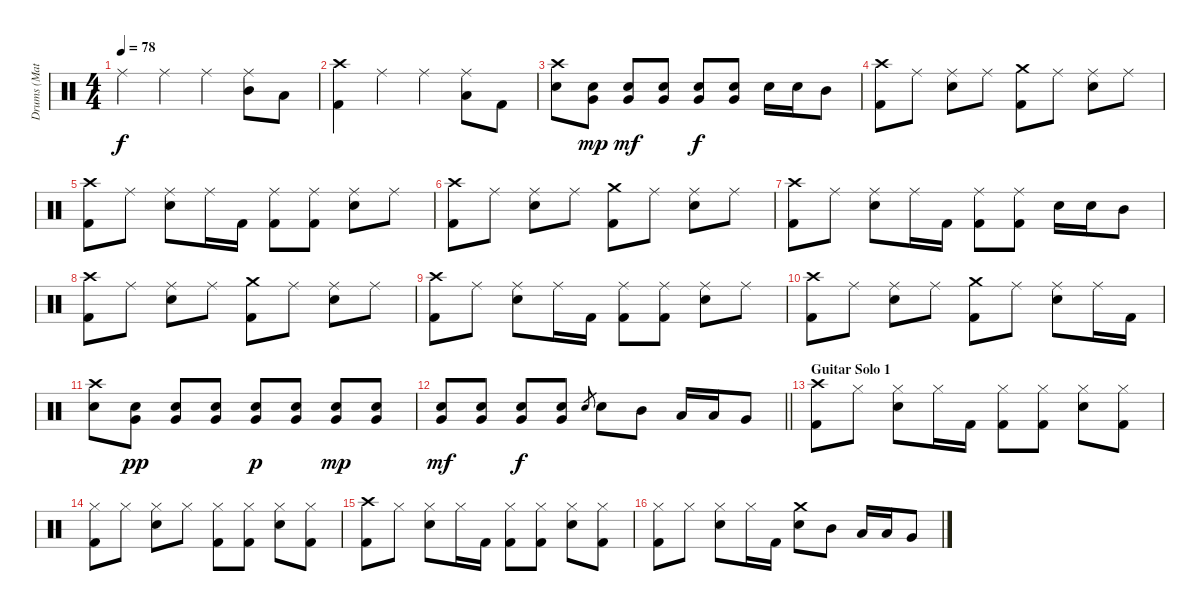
\track ("Drums (Matt)" "Drums (Mat") {instrument percussion}
\staff {score}
\articulation defaults
\ts (4 4)
\tempo 78
\clef neutral
\ks c "Ride (middle)".4{dy f} "Ride (middle)".4 "Ride (middle)".4
("Ride (middle)" "Mid Tom (hit)").8 "Low Tom (hit)".8 |
("Crash high (hit)" "Kick (hit) 2").4 "Ride (middle)".4 "Ride (middle)".4 ("Ride (middle)" "Low Tom (hit)").8 "Kick (hit) 2".8 |
("Crash high (hit)" "Snare (hit) 2").8 ("Very Low Tom (hit)" "Snare (hit) 2").8{dy mp} ("Very Low Tom (hit)" "Snare (hit) 2").8{dy mf} ("Very Low Tom (hit)" "Snare (hit) 2").8 ("Very Low Tom (hit)" "Snare (hit) 2").8{dy f} ("Very Low Tom (hit)" "Snare (hit) 2").8 "Snare (hit) 2".16 "Snare (hit) 2".16 "Mid Tom (hit)".8 |
("Crash high (hit)" "Kick (hit) 2").8 "Ride (middle)".8 ("Ride (middle)" "Snare (hit) 2").8 "Ride (middle)".8 ("Crash medium (hit)" "Kick (hit) 2").8 "Ride (middle)".8 ("Ride (middle)" "Snare (hit) 2").8 "Ride (middle)".8 |
("Crash high (hit)" "Kick (hit) 2").8 "Ride (middle)".8 ("Ride (middle)" "Snare (hit) 2").8 "Ride (middle)".16 "Kick (hit) 2".16 ("Ride (middle)" "Kick (hit) 2").8 ("Ride (middle)" "Kick (hit) 2").8 ("Ride (middle)" "Snare (hit) 2").8 "Ride (middle)".8 |
("Crash high (hit)" "Kick (hit) 2").8 "Ride (middle)".8 ("Ride (middle)" "Snare (hit) 2").8 "Ride (middle)".8 ("Crash medium (hit)" "Kick (hit) 2").8 "Ride (middle)".8 ("Ride (middle)" "Snare (hit) 2").8 "Ride (middle)".8 |
("Crash high (hit)" "Kick (hit) 2").8 "Ride (middle)".8 ("Ride (middle)" "Snare (hit) 2").8 "Ride (middle)".16 "Kick (hit) 2".16 ("Ride (middle)" "Kick (hit) 2").8 ("Ride (middle)" "Kick (hit) 2").8 "Snare (hit) 2".16 "Snare (hit) 2".16 "Mid Tom (hit)".8 |
("Crash high (hit)" "Kick (hit) 2").8 "Ride (middle)".8 ("Ride (middle)" "Snare (hit) 2").8 "Ride (middle)".8 ("Crash medium (hit)" "Kick (hit) 2").8 "Ride (middle)".8 ("Ride (middle)" "Snare (hit) 2").8 "Ride (middle)".8 |
("Crash high (hit)" "Kick (hit) 2").8 "Ride (middle)".8 ("Ride (middle)" "Snare (hit) 2").8 "Ride (middle)".16 "Kick (hit) 2".16 ("Ride (middle)" "Kick (hit) 2").8 ("Ride (middle)" "Kick (hit) 2").8 ("Ride (middle)" "Snare (hit) 2").8 "Ride (middle)".8 |
("Crash high (hit)" "Kick (hit) 2").8 "Ride (middle)".8 ("Ride (middle)" "Snare (hit) 2").8 "Ride (middle)".8 ("Crash medium (hit)" "Kick (hit) 2").8 "Ride (middle)".8 ("Ride (middle)" "Snare (hit) 2").8 "Ride (middle)".16 "Kick (hit) 2".16 |
("Crash high (hit)" "Snare (hit) 2").8 ("Very Low Tom (hit)" "Snare (hit) 2").8{dy pp} ("Very Low Tom (hit)" "Snare (hit) 2").8 ("Very Low Tom (hit)" "Snare (hit) 2").8 ("Very Low Tom (hit)" "Snare (hit) 2").8{dy p} ("Very Low Tom (hit)" "Snare (hit) 2").8 ("Very Low Tom (hit)" "Snare (hit) 2").8{dy mp} ("Very Low Tom (hit)" "Snare (hit) 2").8 |
\barLineRight lightlight
("Very Low Tom (hit)" "Snare (hit) 2").8{dy mf} ("Very Low Tom (hit)" "Snare (hit) 2").8 ("Very Low Tom (hit)" "Snare (hit) 2").8{dy f} ("Very Low Tom (hit)" "Snare (hit) 2").8 "Snare (hit) 2".8{gr} "Snare (hit) 2".8 "Mid Tom (hit)".8 "Low Tom (hit)".16 "Low Tom (hit)".16 "Very Low Tom (hit)".8 |
\section ("" "Guitar Solo 1")
("Crash high (hit)" "Kick (hit) 2").8 "Hi-Hat (closed)".8 ("Hi-Hat (closed)" "Snare (hit) 2").8 "Hi-Hat (closed)".16 "Kick (hit) 2".16 ("Hi-Hat (closed)" "Kick (hit) 2").8 ("Hi-Hat (closed)" "Kick (hit) 2").8 ("Hi-Hat (closed)" "Snare (hit) 2").8 ("Hi-Hat (closed)" "Kick (hit) 2").8 |
("Hi-Hat (closed)" "Kick (hit) 2").8 "Hi-Hat (closed)".8 ("Hi-Hat (closed)" "Snare (hit) 2").8 "Hi-Hat (closed)".8 ("Hi-Hat (closed)" "Kick (hit) 2").8 ("Hi-Hat (closed)" "Kick (hit) 2").8 ("Hi-Hat (closed)" "Snare (hit) 2").8 ("Hi-Hat (closed)" "Kick (hit) 2").8 |
("Crash high (hit)" "Kick (hit) 2").8 "Hi-Hat (closed)".8 ("Hi-Hat (closed)" "Snare (hit) 2").8 "Hi-Hat (closed)".16 "Kick (hit) 2".16 ("Hi-Hat (closed)" "Kick (hit) 2").8 ("Hi-Hat (closed)" "Kick (hit) 2").8 ("Hi-Hat (closed)" "Snare (hit) 2").8 ("Hi-Hat (closed)" "Kick (hit) 2").8 |
("Hi-Hat (closed)" "Kick (hit) 2").8 "Hi-Hat (closed)".8 ("Hi-Hat (closed)" "Snare (hit) 2").8 "Hi-Hat (closed)".16 "Kick (hit) 2".16 ("Crash medium (hit)" "Snare (hit) 2").8 "Mid Tom (hit)".8 "Low Tom (hit)".16 "Low Tom (hit)".16 "Very Low Tom (hit)".8
